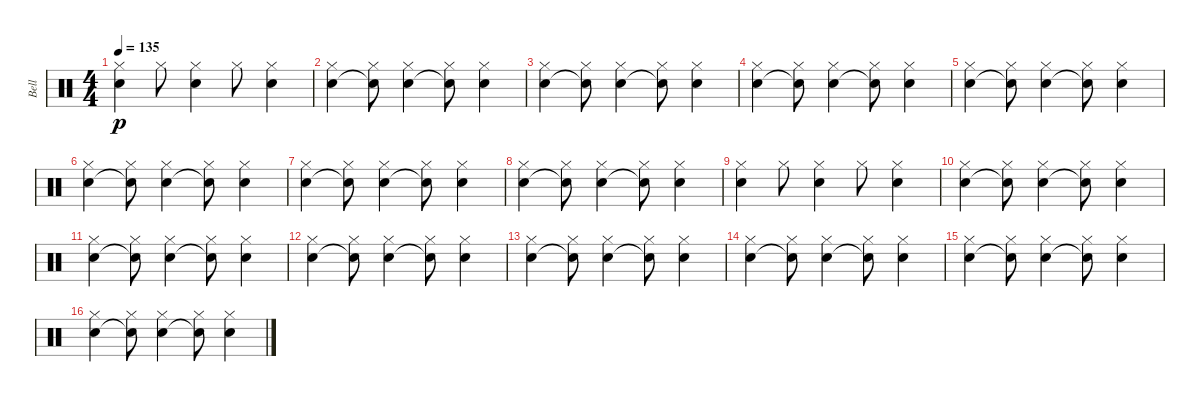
\track ("Bell" "Bell") {instrument percussion}
\staff {score}
\articulation defaults
\ts (4 4)
\tempo 135
\clef neutral
\ks c
("Hi-Hat (closed)" "Snare (hit) 2").4{dy p} "Hi-Hat (closed)".8 ("Hi-Hat (closed)" "Snare (hit) 2").4 "Hi-Hat (closed)".8 ("Hi-Hat (closed)" "Snare (hit) 2").4 |
("Hi-Hat (closed)" "Snare (hit) 2").4 ("Hi-Hat (closed)" "Snare (hit) 2"{t}).8 ("Hi-Hat (closed)" "Snare (hit) 2").4 ("Hi-Hat (closed)" "Snare (hit) 2"{t}).8 ("Hi-Hat (closed)" "Snare (hit) 2").4 |
("Hi-Hat (closed)" "Snare (hit) 2").4 ("Hi-Hat (closed)" "Snare (hit) 2"{t}).8 ("Hi-Hat (closed)" "Snare (hit) 2").4 ("Hi-Hat (closed)" "Snare (hit) 2"{t}).8 ("Hi-Hat (closed)" "Snare (hit) 2").4 |
("Hi-Hat (closed)" "Snare (hit) 2").4 ("Hi-Hat (closed)" "Snare (hit) 2"{t}).8 ("Hi-Hat (closed)" "Snare (hit) 2").4 ("Hi-Hat (closed)" "Snare (hit) 2"{t}).8 ("Hi-Hat (closed)" "Snare (hit) 2").4 |
("Hi-Hat (closed)" "Snare (hit) 2").4 ("Hi-Hat (closed)" "Snare (hit) 2"{t}).8 ("Hi-Hat (closed)" "Snare (hit) 2").4 ("Hi-Hat (closed)" "Snare (hit) 2"{t}).8 ("Hi-Hat (closed)" "Snare (hit) 2").4 |
("Hi-Hat (closed)" "Snare (hit) 2").4 ("Hi-Hat (closed)" "Snare (hit) 2"{t}).8 ("Hi-Hat (closed)" "Snare (hit) 2").4 ("Hi-Hat (closed)" "Snare (hit) 2"{t}).8 ("Hi-Hat (closed)" "Snare (hit) 2").4 |
("Hi-Hat (closed)" "Snare (hit) 2").4 ("Hi-Hat (closed)" "Snare (hit) 2"{t}).8 ("Hi-Hat (closed)" "Snare (hit) 2").4 ("Hi-Hat (closed)" "Snare (hit) 2"{t}).8 ("Hi-Hat (closed)" "Snare (hit) 2").4 |
("Hi-Hat (closed)" "Snare (hit) 2").4 ("Hi-Hat (closed)" "Snare (hit) 2"{t}).8 ("Hi-Hat (closed)" "Snare (hit) 2").4 ("Hi-Hat (closed)" "Snare (hit) 2"{t}).8 ("Hi-Hat (closed)" "Snare (hit) 2").4 |
("Hi-Hat (closed)" "Snare (hit) 2").4 "Hi-Hat (closed)".8 ("Hi-Hat (closed)" "Snare (hit) 2").4 "Hi-Hat (closed)".8 ("Hi-Hat (closed)" "Snare (hit) 2").4 |
("Hi-Hat (closed)" "Snare (hit) 2").4 ("Hi-Hat (closed)" "Snare (hit) 2"{t}).8 ("Hi-Hat (closed)" "Snare (hit) 2").4 ("Hi-Hat (closed)" "Snare (hit) 2"{t}).8 ("Hi-Hat (closed)" "Snare (hit) 2").4 |
("Hi-Hat (closed)" "Snare (hit) 2").4 ("Hi-Hat (closed)" "Snare (hit) 2"{t}).8 ("Hi-Hat (closed)" "Snare (hit) 2").4 ("Hi-Hat (closed)" "Snare (hit) 2"{t}).8 ("Hi-Hat (closed)" "Snare (hit) 2").4 |
("Hi-Hat (closed)" "Snare (hit) 2").4 ("Hi-Hat (closed)" "Snare (hit) 2"{t}).8 ("Hi-Hat (closed)" "Snare (hit) 2").4 ("Hi-Hat (closed)" "Snare (hit) 2"{t}).8 ("Hi-Hat (closed)" "Snare (hit) 2").4 |
("Hi-Hat (closed)" "Snare (hit) 2").4 ("Hi-Hat (closed)" "Snare (hit) 2"{t}).8 ("Hi-Hat (closed)" "Snare (hit) 2").4 ("Hi-Hat (closed)" "Snare (hit) 2"{t}).8 ("Hi-Hat (closed)" "Snare (hit) 2").4 |
("Hi-Hat (closed)" "Snare (hit) 2").4 ("Hi-Hat (closed)" "Snare (hit) 2"{t}).8 ("Hi-Hat (closed)" "Snare (hit) 2").4 ("Hi-Hat (closed)" "Snare (hit) 2"{t}).8 ("Hi-Hat (closed)" "Snare (hit) 2").4 |
("Hi-Hat (closed)" "Snare (hit) 2").4 ("Hi-Hat (closed)" "Snare (hit) 2"{t}).8 ("Hi-Hat (closed)" "Snare (hit) 2").4 ("Hi-Hat (closed)" "Snare (hit) 2"{t}).8 ("Hi-Hat (closed)" "Snare (hit) 2").4 |
("Hi-Hat (closed)" "Snare (hit) 2").4 ("Hi-Hat (closed)" "Snare (hit) 2"{t}).8 ("Hi-Hat (closed)" "Snare (hit) 2").4 ("Hi-Hat (closed)" "Snare (hit) 2"{t}).8 ("Hi-Hat (closed)" "Snare (hit) 2").4
